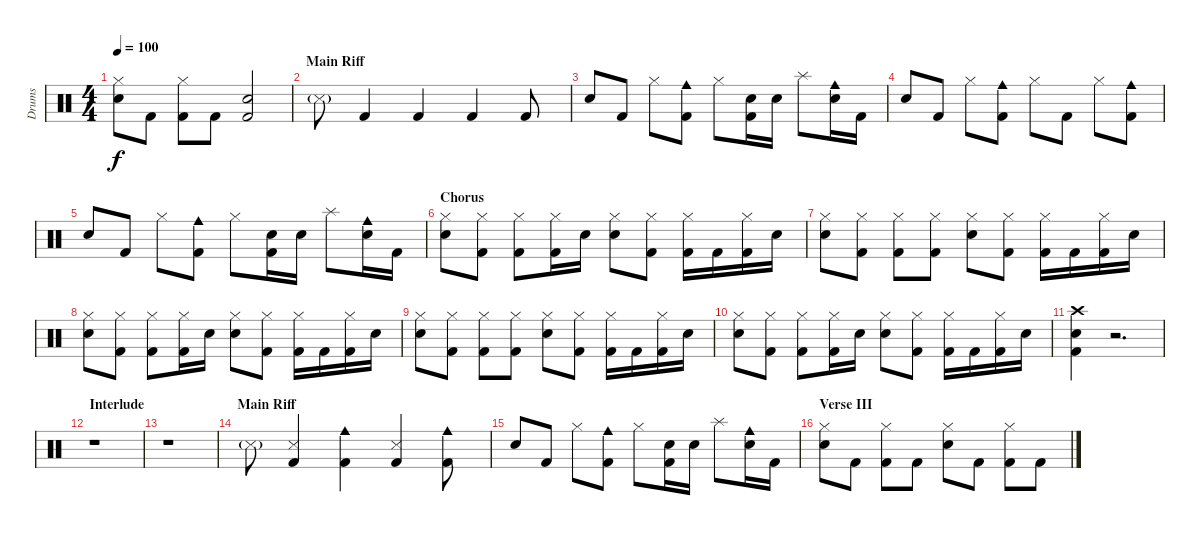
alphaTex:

\track ("Drums" "Drums") {instrument percussion}
\staff {score}
\articulation defaults
\ts (4 4)
\tempo 100
\clef neutral
\ks c
("Hi-Hat (closed)" "Snare (hit) 2").8{dy f} "Kick (hit) 2".8 ("Hi-Hat (closed)" "Kick (hit) 2").8 "Kick (hit) 2".8 ("Snare (hit) 2" "Kick (hit) 2").2 |
\section ("" "Main Riff")
"Snare (side stick) 3"{g}.8 "Kick (hit) 2".4 "Kick (hit) 2".4 "Kick (hit) 2".4 "Kick (hit) 2".8 |
"Snare (hit) 2".8 "Kick (hit) 2".8 "Hi-Hat (closed)".8 ("Cowbell medium (hit)" "Kick (hit) 2").8 "Hi-Hat (closed)".8 ("Snare (hit) 2" "Kick (hit) 2").16 "Snare (hit) 2".16 "Splash (hit)".8 ("Cowbell medium (hit)" "Snare (hit) 2").16 "Kick (hit) 2".16 |
"Snare (hit) 2".8 "Kick (hit) 2".8 "Hi-Hat (closed)".8 ("Cowbell medium (hit)" "Kick (hit) 2").8 "Hi-Hat (closed)".8 "Kick (hit) 2".8 "Hi-Hat (closed)".8 ("Cowbell medium (hit)" "Kick (hit) 2").8 |
"Snare (hit) 2".8 "Kick (hit) 2".8 "Hi-Hat (closed)".8 ("Cowbell medium (hit)" "Kick (hit) 2").8 "Hi-Hat (closed)".8 ("Snare (hit) 2" "Kick (hit) 2").16 "Snare (hit) 2".16 "Splash (hit)".8 ("Cowbell medium (hit)" "Snare (hit) 2").16 "Kick (hit) 2".16 |
\section ("" "Chorus")
("Hi-Hat (closed)" "Snare (hit) 2").8 ("Hi-Hat (closed)" "Kick (hit) 2").8 ("Hi-Hat (closed)" "Kick (hit) 2").8 ("Hi-Hat (closed)" "Kick (hit) 2").16 "Snare (hit) 2".16 ("Hi-Hat (closed)" "Snare (hit) 2").8 ("Hi-Hat (closed)" "Kick (hit) 2").8 ("Hi-Hat (closed)" "Kick (hit) 2").16 "Kick (hit) 2".16 ("Hi-Hat (closed)" "Kick (hit) 2").16 "Snare (hit) 2".16 |
("Hi-Hat (closed)" "Snare (hit) 2").8 ("Hi-Hat (closed)" "Kick (hit) 2").8 ("Hi-Hat (closed)" "Kick (hit) 2").8 ("Hi-Hat (closed)" "Kick (hit) 2").8 ("Hi-Hat (closed)" "Snare (hit) 2").8 ("Hi-Hat (closed)" "Kick (hit) 2").8 ("Hi-Hat (closed)" "Kick (hit) 2").16 "Kick (hit) 2".16 ("Hi-Hat (closed)" "Kick (hit) 2").16 "Snare (hit) 2".16 |
("Hi-Hat (closed)" "Snare (hit) 2").8 ("Hi-Hat (closed)" "Kick (hit) 2").8 ("Hi-Hat (closed)" "Kick (hit) 2").8 ("Hi-Hat (closed)" "Kick (hit) 2").16 "Snare (hit) 2".16 ("Hi-Hat (closed)" "Snare (hit) 2").8 ("Hi-Hat (closed)" "Kick (hit) 2").8 ("Hi-Hat (closed)" "Kick (hit) 2").16 "Kick (hit) 2".16 ("Hi-Hat (closed)" "Kick (hit) 2").16 "Snare (hit) 2".16 |
("Hi-Hat (closed)" "Snare (hit) 2").8 ("Hi-Hat (closed)" "Kick (hit) 2").8 ("Hi-Hat (closed)" "Kick (hit) 2").8 ("Hi-Hat (closed)" "Kick (hit) 2").8 ("Hi-Hat (closed)" "Snare (hit) 2").8 ("Hi-Hat (closed)" "Kick (hit) 2").8 ("Hi-Hat (closed)" "Kick (hit) 2").16 "Kick (hit) 2".16 ("Hi-Hat (closed)" "Kick (hit) 2").16 "Snare (hit) 2".16 |
("Hi-Hat (closed)" "Snare (hit) 2").8 ("Hi-Hat (closed)" "Kick (hit) 2").8 ("Hi-Hat (closed)" "Kick (hit) 2").8 ("Hi-Hat (closed)" "Kick (hit) 2").16 "Snare (hit) 2".16 ("Hi-Hat (closed)" "Snare (hit) 2").8 ("Hi-Hat (closed)" "Kick (hit) 2").8 ("Hi-Hat (closed)" "Kick (hit) 2").16 "Kick (hit) 2".16 ("Hi-Hat (closed)" "Kick (hit) 2").16 "Snare (hit) 2".16 |
("Crash high (hit)" "Snare (hit) 2" "Kick (hit) 2").4 r.2{d} |
\section ("" "Interlude")
r.1 |
r.1 |
\section ("" "Main Riff")
"Snare (side stick) 3"{g}.8 ("Snare (side stick) 3" "Kick (hit) 2").4 ("Cowbell medium (hit)" "Kick (hit) 2").4 ("Snare (side stick) 3" "Kick (hit) 2").4 ("Cowbell medium (hit)" "Kick (hit) 2").8 |
"Snare (hit) 2".8 "Kick (hit) 2".8 "Hi-Hat (closed)".8 ("Cowbell medium (hit)" "Kick (hit) 2").8 "Hi-Hat (closed)".8 ("Snare (hit) 2" "Kick (hit) 2").16 "Snare (hit) 2".16 "Splash (hit)".8 ("Cowbell medium (hit)" "Snare (hit) 2").16 "Kick (hit) 2".16 |
\section ("" "Verse III")
("Hi-Hat (closed)" "Snare (hit) 2").8 "Kick (hit) 2".8 ("Hi-Hat (closed)" "Kick (hit) 2").8 "Kick (hit) 2".8 ("Hi-Hat (closed)" "Snare (hit) 2").8 "Kick (hit) 2".8 ("Hi-Hat (closed)" "Kick (hit) 2").8 "Kick (hit) 2".8
